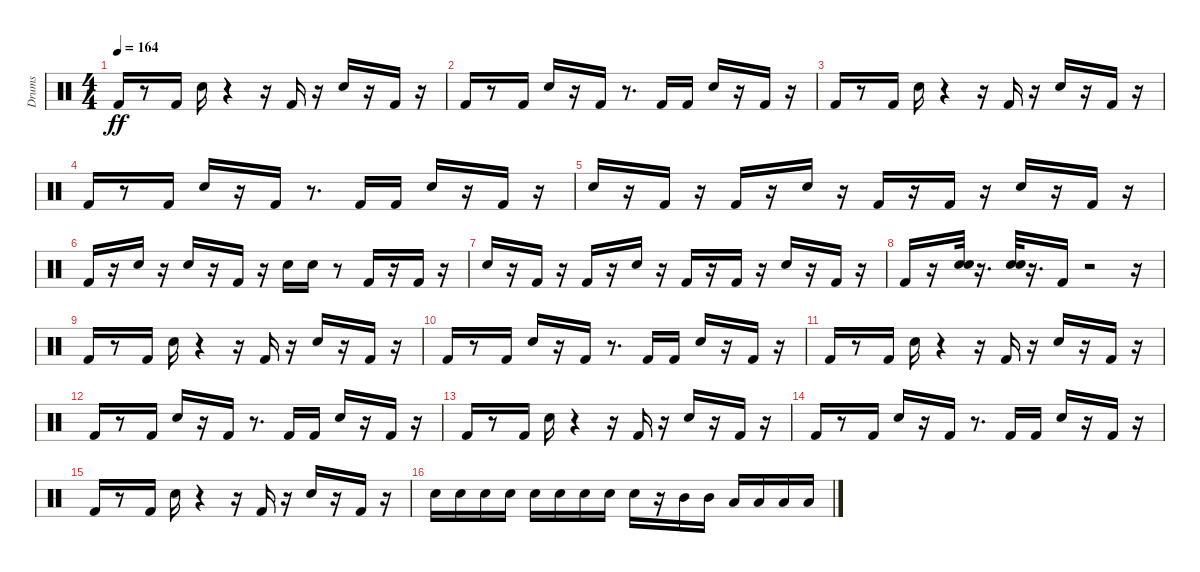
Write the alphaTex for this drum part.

\track ("Drums               " "Drums     ") {instrument percussion}
\staff {score}
\articulation defaults
\ts (4 4)
\tempo 164
\clef neutral
\ks c "Kick (hit) 2".16{dy ff}
r.8 "Kick (hit) 2".16 "Electric Snare (hit)".16 r.4 r.16 "Kick (hit) 2".16 r.16 "Electric Snare (hit)".16 r.16 "Kick (hit) 2".16 r.16 |
"Kick (hit) 2".16 r.8 "Kick (hit) 2".16 "Electric Snare (hit)".16 r.16 "Kick (hit) 2".16 r.8{d} "Kick (hit) 2".16 "Kick (hit) 2".16 "Electric Snare (hit)".16 r.16 "Kick (hit) 2".16 r.16 |
"Kick (hit) 2".16 r.8 "Kick (hit) 2".16 "Electric Snare (hit)".16 r.4 r.16 "Kick (hit) 2".16 r.16 "Electric Snare (hit)".16 r.16 "Kick (hit) 2".16 r.16 |
"Kick (hit) 2".16 r.8 "Kick (hit) 2".16 "Electric Snare (hit)".16 r.16 "Kick (hit) 2".16 r.8{d} "Kick (hit) 2".16 "Kick (hit) 2".16 "Electric Snare (hit)".16 r.16 "Kick (hit) 2".16 r.16 |
"Electric Snare (hit)".16 r.16 "Kick (hit) 2".16 r.16 "Kick (hit) 2".16 r.16 "Electric Snare (hit)".16 r.16 "Kick (hit) 2".16 r.16 "Kick (hit) 2".16 r.16 "Electric Snare (hit)".16 r.16 "Kick (hit) 2".16 r.16 |
"Kick (hit) 2".16 r.16 "Electric Snare (hit)".16 r.16 "Electric Snare (hit)".16 r.16 "Kick (hit) 2".16 r.16 "Electric Snare (hit)".16 "Electric Snare (hit)".16 r.8 "Kick (hit) 2".16 r.16 "Kick (hit) 2".16 r.16 |
"Electric Snare (hit)".16 r.16 "Kick (hit) 2".16 r.16 "Kick (hit) 2".16 r.16 "Electric Snare (hit)".16 r.16 "Kick (hit) 2".16 r.16 "Kick (hit) 2".16 r.16 "Electric Snare (hit)".16 r.16 "Kick (hit) 2".16 r.16 |
"Kick (hit) 2".16 r.16 ("Electric Snare (hit)" "Electric Snare (hit)").32 r.16{d} ("Electric Snare (hit)" "Electric Snare (hit)").32 r.16{d} "Kick (hit) 2".16 r.2 r.16 |
"Kick (hit) 2".16 r.8 "Kick (hit) 2".16 "Electric Snare (hit)".16 r.4 r.16 "Kick (hit) 2".16 r.16 "Electric Snare (hit)".16 r.16 "Kick (hit) 2".16 r.16 |
"Kick (hit) 2".16 r.8 "Kick (hit) 2".16 "Electric Snare (hit)".16 r.16 "Kick (hit) 2".16 r.8{d} "Kick (hit) 2".16 "Kick (hit) 2".16 "Electric Snare (hit)".16 r.16 "Kick (hit) 2".16 r.16 |
"Kick (hit) 2".16 r.8 "Kick (hit) 2".16 "Electric Snare (hit)".16 r.4 r.16 "Kick (hit) 2".16 r.16 "Electric Snare (hit)".16 r.16 "Kick (hit) 2".16 r.16 |
"Kick (hit) 2".16 r.8 "Kick (hit) 2".16 "Electric Snare (hit)".16 r.16 "Kick (hit) 2".16 r.8{d} "Kick (hit) 2".16 "Kick (hit) 2".16 "Electric Snare (hit)".16 r.16 "Kick (hit) 2".16 r.16 |
"Kick (hit) 2".16 r.8 "Kick (hit) 2".16 "Electric Snare (hit)".16 r.4 r.16 "Kick (hit) 2".16 r.16 "Electric Snare (hit)".16 r.16 "Kick (hit) 2".16 r.16 |
"Kick (hit) 2".16 r.8 "Kick (hit) 2".16 "Electric Snare (hit)".16 r.16 "Kick (hit) 2".16 r.8{d} "Kick (hit) 2".16 "Kick (hit) 2".16 "Electric Snare (hit)".16 r.16 "Kick (hit) 2".16 r.16 |
"Kick (hit) 2".16 r.8 "Kick (hit) 2".16 "Electric Snare (hit)".16 r.4 r.16 "Kick (hit) 2".16 r.16 "Electric Snare (hit)".16 r.16 "Kick (hit) 2".16 r.16 |
"Electric Snare (hit)".16 "Electric Snare (hit)".16 "Electric Snare (hit)".16 "Electric Snare (hit)".16 "Electric Snare (hit)".16 "Electric Snare (hit)".16 "Electric Snare (hit)".16 "Electric Snare (hit)".16 "Electric Snare (hit)".16 r.16 "Mid Tom (hit)".16 "Mid Tom (hit)".16 "Low Tom (hit)".16 "Low Tom (hit)".16 "Low Floor Tom (hit)".16 "Low Floor Tom (hit)".16
